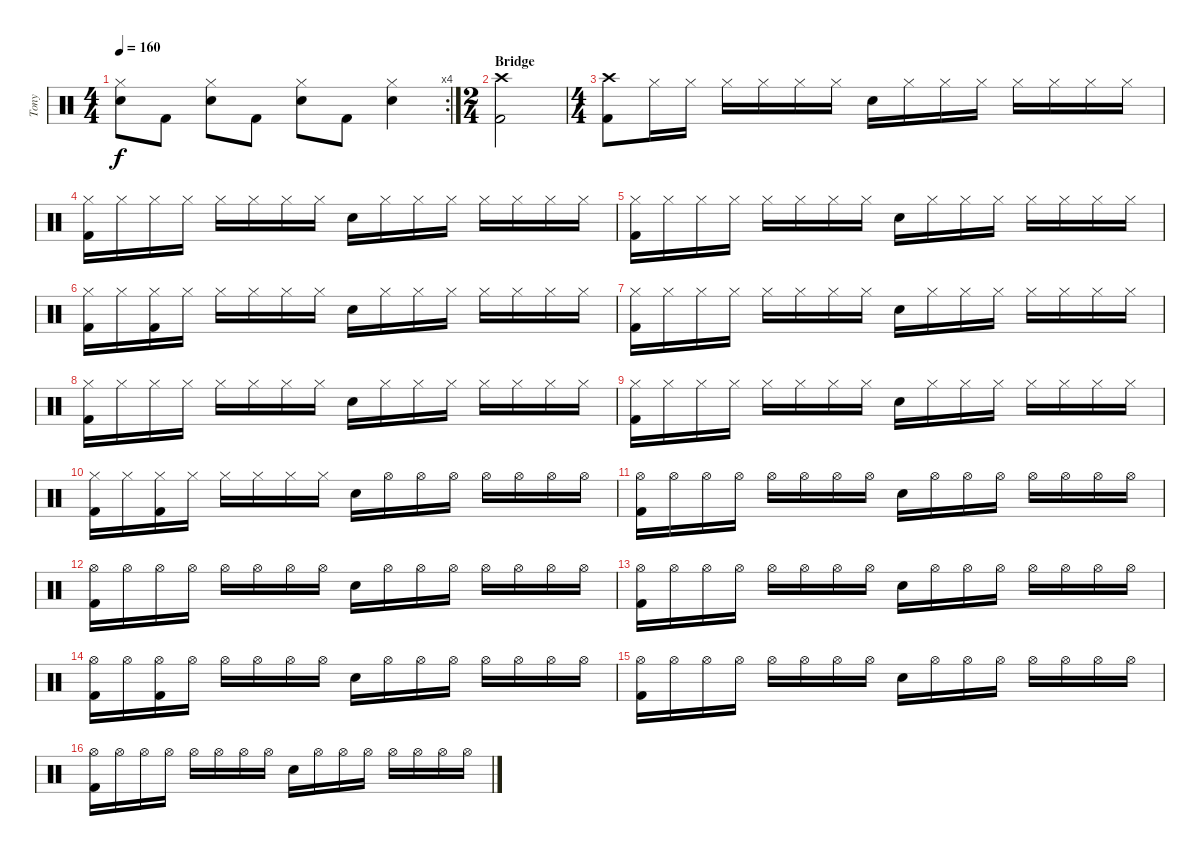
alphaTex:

\track ("Tony" "Tony") {instrument percussion}
\staff {score}
\articulation defaults
\rc 4
\ts (4 4)
\tempo 160
\clef neutral
\ks c
("Snare (hit) 2" "Hi-Hat (closed)").8{dy f} "Kick (hit) 2".8 ("Snare (hit) 2" "Hi-Hat (closed)").8 "Kick (hit) 2".8 ("Snare (hit) 2" "Hi-Hat (closed)").8 "Kick (hit) 2".8 ("Snare (hit) 2" "Hi-Hat (closed)").4 |
\ts (2 4)
\section ("" "Bridge")
("Kick (hit) 2" "Crash high (hit)").2 |
\ts (4 4)
("Kick (hit) 2" "Crash high (hit)").8{volume 12} "Hi-Hat (closed)".16 "Hi-Hat (closed)".16 "Hi-Hat (closed)".16 "Hi-Hat (closed)".16 "Hi-Hat (closed)".16 "Hi-Hat (closed)".16 "Snare (hit) 2".16 "Hi-Hat (closed)".16 "Hi-Hat (closed)".16 "Hi-Hat (closed)".16 "Hi-Hat (closed)".16 "Hi-Hat (closed)".16 "Hi-Hat (closed)".16 "Hi-Hat (closed)".16 |
("Kick (hit) 2" "Hi-Hat (closed)").16 "Hi-Hat (closed)".16 "Hi-Hat (closed)".16 "Hi-Hat (closed)".16 "Hi-Hat (closed)".16 "Hi-Hat (closed)".16 "Hi-Hat (closed)".16 "Hi-Hat (closed)".16 "Snare (hit) 2".16 "Hi-Hat (closed)".16 "Hi-Hat (closed)".16 "Hi-Hat (closed)".16 "Hi-Hat (closed)".16 "Hi-Hat (closed)".16 "Hi-Hat (closed)".16 "Hi-Hat (closed)".16 |
("Kick (hit) 2" "Hi-Hat (closed)").16{volume 12} "Hi-Hat (closed)".16 "Hi-Hat (closed)".16 "Hi-Hat (closed)".16 "Hi-Hat (closed)".16 "Hi-Hat (closed)".16 "Hi-Hat (closed)".16 "Hi-Hat (closed)".16 "Snare (hit) 2".16 "Hi-Hat (closed)".16 "Hi-Hat (closed)".16 "Hi-Hat (closed)".16 "Hi-Hat (closed)".16 "Hi-Hat (closed)".16 "Hi-Hat (closed)".16 "Hi-Hat (closed)".16 |
("Kick (hit) 2" "Hi-Hat (closed)").16 "Hi-Hat (closed)".16 ("Kick (hit) 2" "Hi-Hat (closed)").16 "Hi-Hat (closed)".16 "Hi-Hat (closed)".16 "Hi-Hat (closed)".16 "Hi-Hat (closed)".16 "Hi-Hat (closed)".16 "Snare (hit) 2".16 "Hi-Hat (closed)".16 "Hi-Hat (closed)".16 "Hi-Hat (closed)".16 "Hi-Hat (closed)".16 "Hi-Hat (closed)".16 "Hi-Hat (closed)".16 "Hi-Hat (closed)".16 |
("Kick (hit) 2" "Hi-Hat (closed)").16 "Hi-Hat (closed)".16 "Hi-Hat (closed)".16 "Hi-Hat (closed)".16 "Hi-Hat (closed)".16 "Hi-Hat (closed)".16 "Hi-Hat (closed)".16 "Hi-Hat (closed)".16 "Snare (hit) 2".16 "Hi-Hat (closed)".16 "Hi-Hat (closed)".16 "Hi-Hat (closed)".16 "Hi-Hat (closed)".16 "Hi-Hat (closed)".16 "Hi-Hat (closed)".16 "Hi-Hat (closed)".16 |
("Kick (hit) 2" "Hi-Hat (closed)").16{volume 12} "Hi-Hat (closed)".16 "Hi-Hat (closed)".16 "Hi-Hat (closed)".16 "Hi-Hat (closed)".16 "Hi-Hat (closed)".16 "Hi-Hat (closed)".16 "Hi-Hat (closed)".16 "Snare (hit) 2".16 "Hi-Hat (closed)".16 "Hi-Hat (closed)".16 "Hi-Hat (closed)".16 "Hi-Hat (closed)".16 "Hi-Hat (closed)".16 "Hi-Hat (closed)".16 "Hi-Hat (closed)".16 |
("Kick (hit) 2" "Hi-Hat (closed)").16 "Hi-Hat (closed)".16 "Hi-Hat (closed)".16 "Hi-Hat (closed)".16 "Hi-Hat (closed)".16 "Hi-Hat (closed)".16 "Hi-Hat (closed)".16 "Hi-Hat (closed)".16 "Snare (hit) 2".16 "Hi-Hat (closed)".16 "Hi-Hat (closed)".16 "Hi-Hat (closed)".16 "Hi-Hat (closed)".16 "Hi-Hat (closed)".16 "Hi-Hat (closed)".16 "Hi-Hat (closed)".16 |
("Kick (hit) 2" "Hi-Hat (closed)").16 "Hi-Hat (closed)".16 ("Kick (hit) 2" "Hi-Hat (closed)").16 "Hi-Hat (closed)".16 "Hi-Hat (closed)".16 "Hi-Hat (closed)".16 "Hi-Hat (closed)".16 "Hi-Hat (closed)".16 "Snare (hit) 2".16 "Hi-Hat (open)".16 "Hi-Hat (open)".16 "Hi-Hat (open)".16 "Hi-Hat (open)".16 "Hi-Hat (open)".16 "Hi-Hat (open)".16 "Hi-Hat (open)".16 |
("Kick (hit) 2" "Hi-Hat (open)").16{volume 12} "Hi-Hat (open)".16 "Hi-Hat (open)".16 "Hi-Hat (open)".16 "Hi-Hat (open)".16 "Hi-Hat (open)".16 "Hi-Hat (open)".16 "Hi-Hat (open)".16 "Snare (hit) 2".16 "Hi-Hat (open)".16 "Hi-Hat (open)".16 "Hi-Hat (open)".16 "Hi-Hat (open)".16 "Hi-Hat (open)".16 "Hi-Hat (open)".16 "Hi-Hat (open)".16 |
("Kick (hit) 2" "Hi-Hat (open)").16 "Hi-Hat (open)".16 "Hi-Hat (open)".16 "Hi-Hat (open)".16 "Hi-Hat (open)".16 "Hi-Hat (open)".16 "Hi-Hat (open)".16 "Hi-Hat (open)".16 "Snare (hit) 2".16 "Hi-Hat (open)".16 "Hi-Hat (open)".16 "Hi-Hat (open)".16 "Hi-Hat (open)".16 "Hi-Hat (open)".16 "Hi-Hat (open)".16 "Hi-Hat (open)".16 |
("Kick (hit) 2" "Hi-Hat (open)").16{volume 12} "Hi-Hat (open)".16 "Hi-Hat (open)".16 "Hi-Hat (open)".16 "Hi-Hat (open)".16 "Hi-Hat (open)".16 "Hi-Hat (open)".16 "Hi-Hat (open)".16 "Snare (hit) 2".16 "Hi-Hat (open)".16 "Hi-Hat (open)".16 "Hi-Hat (open)".16 "Hi-Hat (open)".16 "Hi-Hat (open)".16 "Hi-Hat (open)".16 "Hi-Hat (open)".16 |
("Kick (hit) 2" "Hi-Hat (open)").16 "Hi-Hat (open)".16 ("Kick (hit) 2" "Hi-Hat (open)").16 "Hi-Hat (open)".16 "Hi-Hat (open)".16 "Hi-Hat (open)".16 "Hi-Hat (open)".16 "Hi-Hat (open)".16 "Snare (hit) 2".16 "Hi-Hat (open)".16 "Hi-Hat (open)".16 "Hi-Hat (open)".16 "Hi-Hat (open)".16 "Hi-Hat (open)".16 "Hi-Hat (open)".16 "Hi-Hat (open)".16 |
("Kick (hit) 2" "Hi-Hat (open)").16{volume 12} "Hi-Hat (open)".16 "Hi-Hat (open)".16 "Hi-Hat (open)".16 "Hi-Hat (open)".16 "Hi-Hat (open)".16 "Hi-Hat (open)".16 "Hi-Hat (open)".16 "Snare (hit) 2".16 "Hi-Hat (open)".16 "Hi-Hat (open)".16 "Hi-Hat (open)".16 "Hi-Hat (open)".16 "Hi-Hat (open)".16 "Hi-Hat (open)".16 "Hi-Hat (open)".16 |
("Kick (hit) 2" "Hi-Hat (open)").16 "Hi-Hat (open)".16 "Hi-Hat (open)".16 "Hi-Hat (open)".16 "Hi-Hat (open)".16 "Hi-Hat (open)".16 "Hi-Hat (open)".16 "Hi-Hat (open)".16 "Snare (hit) 2".16 "Hi-Hat (open)".16 "Hi-Hat (open)".16 "Hi-Hat (open)".16 "Hi-Hat (open)".16 "Hi-Hat (open)".16 "Hi-Hat (open)".16 "Hi-Hat (open)".16
